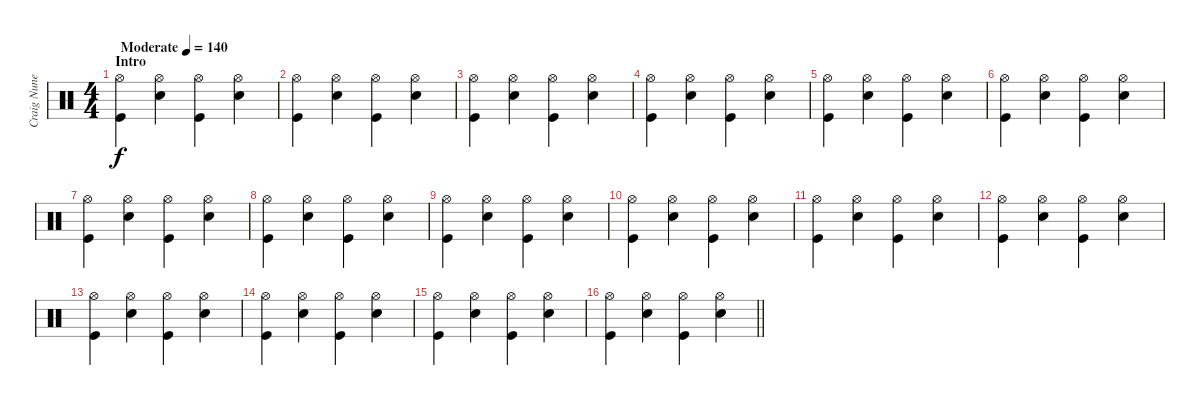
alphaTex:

\track ("Craig Nunenmacher" "Craig Nune") {instrument percussion}
\staff {score}
\articulation defaults
\ts (4 4)
\section ("" "Intro")
\tempo (140 "Moderate")
\clef neutral
\ks c
("Hi-Hat (open)" "Kick (hit)").4{dy f} ("Snare (hit) 2" "Hi-Hat (open)").4 ("Hi-Hat (open)" "Kick (hit)").4 ("Snare (hit) 2" "Hi-Hat (open)").4 |
("Hi-Hat (open)" "Kick (hit)").4 ("Snare (hit) 2" "Hi-Hat (open)").4 ("Hi-Hat (open)" "Kick (hit)").4 ("Snare (hit) 2" "Hi-Hat (open)").4 |
("Hi-Hat (open)" "Kick (hit)").4 ("Snare (hit) 2" "Hi-Hat (open)").4 ("Hi-Hat (open)" "Kick (hit)").4 ("Snare (hit) 2" "Hi-Hat (open)").4 |
("Hi-Hat (open)" "Kick (hit)").4 ("Snare (hit) 2" "Hi-Hat (open)").4 ("Hi-Hat (open)" "Kick (hit)").4 ("Snare (hit) 2" "Hi-Hat (open)").4 |
("Hi-Hat (open)" "Kick (hit)").4 ("Snare (hit) 2" "Hi-Hat (open)").4 ("Hi-Hat (open)" "Kick (hit)").4 ("Snare (hit) 2" "Hi-Hat (open)").4 |
("Hi-Hat (open)" "Kick (hit)").4 ("Snare (hit) 2" "Hi-Hat (open)").4 ("Hi-Hat (open)" "Kick (hit)").4 ("Snare (hit) 2" "Hi-Hat (open)").4 |
("Hi-Hat (open)" "Kick (hit)").4 ("Snare (hit) 2" "Hi-Hat (open)").4 ("Hi-Hat (open)" "Kick (hit)").4 ("Snare (hit) 2" "Hi-Hat (open)").4 |
("Hi-Hat (open)" "Kick (hit)").4 ("Snare (hit) 2" "Hi-Hat (open)").4 ("Hi-Hat (open)" "Kick (hit)").4 ("Snare (hit) 2" "Hi-Hat (open)").4 |
("Hi-Hat (open)" "Kick (hit)").4 ("Snare (hit) 2" "Hi-Hat (open)").4 ("Hi-Hat (open)" "Kick (hit)").4 ("Snare (hit) 2" "Hi-Hat (open)").4 |
("Hi-Hat (open)" "Kick (hit)").4 ("Snare (hit) 2" "Hi-Hat (open)").4 ("Hi-Hat (open)" "Kick (hit)").4 ("Snare (hit) 2" "Hi-Hat (open)").4 |
("Hi-Hat (open)" "Kick (hit)").4 ("Snare (hit) 2" "Hi-Hat (open)").4 ("Hi-Hat (open)" "Kick (hit)").4 ("Snare (hit) 2" "Hi-Hat (open)").4 |
("Hi-Hat (open)" "Kick (hit)").4 ("Snare (hit) 2" "Hi-Hat (open)").4 ("Hi-Hat (open)" "Kick (hit)").4 ("Snare (hit) 2" "Hi-Hat (open)").4 |
("Hi-Hat (open)" "Kick (hit)").4 ("Snare (hit) 2" "Hi-Hat (open)").4 ("Hi-Hat (open)" "Kick (hit)").4 ("Snare (hit) 2" "Hi-Hat (open)").4 |
("Hi-Hat (open)" "Kick (hit)").4 ("Snare (hit) 2" "Hi-Hat (open)").4 ("Hi-Hat (open)" "Kick (hit)").4 ("Snare (hit) 2" "Hi-Hat (open)").4 |
("Hi-Hat (open)" "Kick (hit)").4 ("Snare (hit) 2" "Hi-Hat (open)").4 ("Hi-Hat (open)" "Kick (hit)").4 ("Snare (hit) 2" "Hi-Hat (open)").4 |
\barLineRight lightlight
("Hi-Hat (open)" "Kick (hit)").4 ("Snare (hit) 2" "Hi-Hat (open)").4 ("Hi-Hat (open)" "Kick (hit)").4 ("Snare (hit) 2" "Hi-Hat (open)").4
